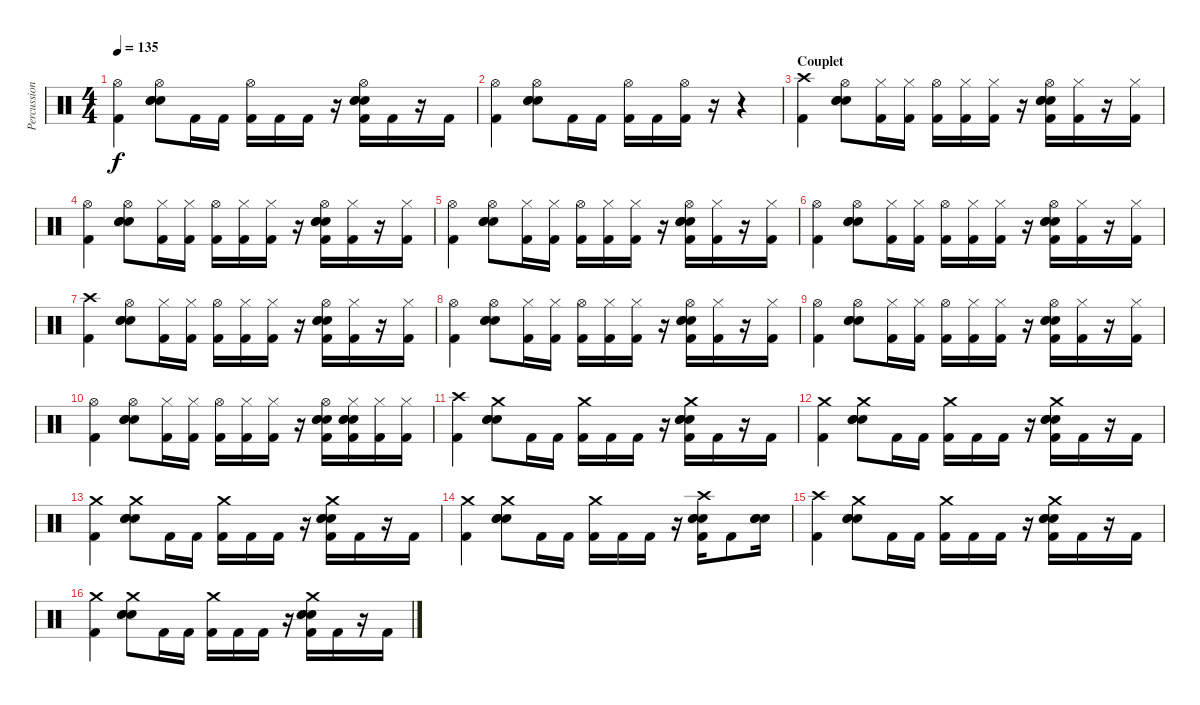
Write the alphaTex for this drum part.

\track ("Percussions" "Percussion") {instrument percussion}
\staff {score}
\articulation defaults
\ts (4 4)
\tempo 135
\clef neutral
\ks c
("Hi-Hat (open)" "Kick (hit) 2").4{dy f} ("Hi-Hat (open)" "Snare (hit) 2" "Electric Snare (hit)" "Electric Snare (hit)").8 "Kick (hit) 2".16 "Kick (hit) 2".16 ("Hi-Hat (open)" "Kick (hit) 2").16 "Kick (hit) 2".16 "Kick (hit) 2".16 r.16 ("Hi-Hat (open)" "Kick (hit) 2" "Snare (hit) 2" "Electric Snare (hit)" "Electric Snare (hit)").16 "Kick (hit) 2".16 r.16 "Kick (hit) 2".16 |
("Hi-Hat (open)" "Kick (hit) 2").4 ("Hi-Hat (open)" "Snare (hit) 2" "Electric Snare (hit)" "Electric Snare (hit)").8 "Kick (hit) 2".16 "Kick (hit) 2".16 ("Hi-Hat (open)" "Kick (hit) 2").16 "Kick (hit) 2".16 ("Hi-Hat (open)" "Kick (hit) 2").16 r.16 r.4 |
\section ("" "Couplet")
("Crash high (hit)" "Kick (hit) 2").4 ("Hi-Hat (open)" "Snare (hit) 2" "Electric Snare (hit)" "Electric Snare (hit)").8 ("Hi-Hat (closed)" "Kick (hit) 2").16 ("Hi-Hat (closed)" "Kick (hit) 2").16 ("Hi-Hat (open)" "Kick (hit) 2").16 ("Hi-Hat (closed)" "Kick (hit) 2").16 ("Hi-Hat (closed)" "Kick (hit) 2").16 r.16 ("Hi-Hat (open)" "Kick (hit) 2" "Snare (hit) 2" "Electric Snare (hit)" "Electric Snare (hit)").16 ("Hi-Hat (closed)" "Kick (hit) 2").16 r.16 ("Hi-Hat (closed)" "Kick (hit) 2").16 |
("Hi-Hat (open)" "Kick (hit) 2").4 ("Hi-Hat (open)" "Snare (hit) 2" "Electric Snare (hit)" "Electric Snare (hit)").8 ("Hi-Hat (closed)" "Kick (hit) 2").16 ("Hi-Hat (closed)" "Kick (hit) 2").16 ("Hi-Hat (open)" "Kick (hit) 2").16 ("Hi-Hat (closed)" "Kick (hit) 2").16 ("Hi-Hat (closed)" "Kick (hit) 2").16 r.16 ("Hi-Hat (open)" "Kick (hit) 2" "Snare (hit) 2" "Electric Snare (hit)" "Electric Snare (hit)").16 ("Hi-Hat (closed)" "Kick (hit) 2").16 r.16 ("Hi-Hat (closed)" "Kick (hit) 2").16 |
("Hi-Hat (open)" "Kick (hit) 2").4 ("Hi-Hat (open)" "Snare (hit) 2" "Electric Snare (hit)" "Electric Snare (hit)").8 ("Hi-Hat (closed)" "Kick (hit) 2").16 ("Hi-Hat (closed)" "Kick (hit) 2").16 ("Hi-Hat (open)" "Kick (hit) 2").16 ("Hi-Hat (closed)" "Kick (hit) 2").16 ("Hi-Hat (closed)" "Kick (hit) 2").16 r.16 ("Hi-Hat (open)" "Kick (hit) 2" "Snare (hit) 2" "Electric Snare (hit)" "Electric Snare (hit)").16 ("Hi-Hat (closed)" "Kick (hit) 2").16 r.16 ("Hi-Hat (closed)" "Kick (hit) 2").16 |
("Hi-Hat (open)" "Kick (hit) 2").4 ("Hi-Hat (open)" "Snare (hit) 2" "Electric Snare (hit)" "Electric Snare (hit)").8 ("Hi-Hat (closed)" "Kick (hit) 2").16 ("Hi-Hat (closed)" "Kick (hit) 2").16 ("Hi-Hat (open)" "Kick (hit) 2").16 ("Hi-Hat (closed)" "Kick (hit) 2").16 ("Hi-Hat (closed)" "Kick (hit) 2").16 r.16 ("Hi-Hat (open)" "Kick (hit) 2" "Snare (hit) 2" "Electric Snare (hit)" "Electric Snare (hit)").16 ("Hi-Hat (closed)" "Kick (hit) 2").16 r.16 ("Hi-Hat (closed)" "Kick (hit) 2").16 |
("Crash high (hit)" "Kick (hit) 2").4 ("Hi-Hat (open)" "Snare (hit) 2" "Electric Snare (hit)" "Electric Snare (hit)").8 ("Hi-Hat (closed)" "Kick (hit) 2").16 ("Hi-Hat (closed)" "Kick (hit) 2").16 ("Hi-Hat (open)" "Kick (hit) 2").16 ("Hi-Hat (closed)" "Kick (hit) 2").16 ("Hi-Hat (closed)" "Kick (hit) 2").16 r.16 ("Hi-Hat (open)" "Kick (hit) 2" "Snare (hit) 2" "Electric Snare (hit)" "Electric Snare (hit)").16 ("Hi-Hat (closed)" "Kick (hit) 2").16 r.16 ("Hi-Hat (closed)" "Kick (hit) 2").16 |
("Hi-Hat (open)" "Kick (hit) 2").4 ("Hi-Hat (open)" "Snare (hit) 2" "Electric Snare (hit)" "Electric Snare (hit)").8 ("Hi-Hat (closed)" "Kick (hit) 2").16 ("Hi-Hat (closed)" "Kick (hit) 2").16 ("Hi-Hat (open)" "Kick (hit) 2").16 ("Hi-Hat (closed)" "Kick (hit) 2").16 ("Hi-Hat (closed)" "Kick (hit) 2").16 r.16 ("Hi-Hat (open)" "Kick (hit) 2" "Snare (hit) 2" "Electric Snare (hit)" "Electric Snare (hit)").16 ("Hi-Hat (closed)" "Kick (hit) 2").16 r.16 ("Hi-Hat (closed)" "Kick (hit) 2").16 |
("Hi-Hat (open)" "Kick (hit) 2").4 ("Hi-Hat (open)" "Snare (hit) 2" "Electric Snare (hit)" "Electric Snare (hit)").8 ("Hi-Hat (closed)" "Kick (hit) 2").16 ("Hi-Hat (closed)" "Kick (hit) 2").16 ("Hi-Hat (open)" "Kick (hit) 2").16 ("Hi-Hat (closed)" "Kick (hit) 2").16 ("Hi-Hat (closed)" "Kick (hit) 2").16 r.16 ("Hi-Hat (open)" "Kick (hit) 2" "Snare (hit) 2" "Electric Snare (hit)" "Electric Snare (hit)").16 ("Hi-Hat (closed)" "Kick (hit) 2").16 r.16 ("Hi-Hat (closed)" "Kick (hit) 2").16 |
("Hi-Hat (open)" "Kick (hit) 2").4 ("Hi-Hat (open)" "Snare (hit) 2" "Electric Snare (hit)" "Electric Snare (hit)").8 ("Hi-Hat (closed)" "Kick (hit) 2").16 ("Hi-Hat (closed)" "Kick (hit) 2").16 ("Hi-Hat (open)" "Kick (hit) 2").16 ("Hi-Hat (closed)" "Kick (hit) 2").16 ("Hi-Hat (closed)" "Kick (hit) 2").16 r.16 ("Hi-Hat (open)" "Kick (hit) 2" "Snare (hit) 2" "Electric Snare (hit)" "Electric Snare (hit)").16 ("Hi-Hat (closed)" "Kick (hit) 2" "Snare (hit) 2" "Electric Snare (hit)" "Electric Snare (hit)").16 ("Hi-Hat (closed)" "Kick (hit) 2").16 ("Hi-Hat (closed)" "Kick (hit) 2").16 |
("Crash high (hit)" "Kick (hit) 2").4 ("Crash medium (hit)" "Snare (hit) 2" "Electric Snare (hit)" "Electric Snare (hit)").8 "Kick (hit) 2".16 "Kick (hit) 2".16 ("Crash medium (hit)" "Kick (hit) 2").16 "Kick (hit) 2".16 "Kick (hit) 2".16 r.16 ("Crash medium (hit)" "Kick (hit) 2" "Snare (hit) 2" "Electric Snare (hit)" "Electric Snare (hit)").16 "Kick (hit) 2".16 r.16 "Kick (hit) 2".16 |
("Crash medium (hit)" "Kick (hit) 2").4 ("Crash medium (hit)" "Snare (hit) 2" "Electric Snare (hit)" "Electric Snare (hit)").8 "Kick (hit) 2".16 "Kick (hit) 2".16 ("Crash medium (hit)" "Kick (hit) 2").16 "Kick (hit) 2".16 "Kick (hit) 2".16 r.16 ("Crash medium (hit)" "Kick (hit) 2" "Snare (hit) 2" "Electric Snare (hit)" "Electric Snare (hit)").16 "Kick (hit) 2".16 r.16 "Kick (hit) 2".16 |
("Crash medium (hit)" "Kick (hit) 2").4 ("Crash medium (hit)" "Snare (hit) 2" "Electric Snare (hit)" "Electric Snare (hit)").8 "Kick (hit) 2".16 "Kick (hit) 2".16 ("Crash medium (hit)" "Kick (hit) 2").16 "Kick (hit) 2".16 "Kick (hit) 2".16 r.16 ("Crash medium (hit)" "Kick (hit) 2" "Snare (hit) 2" "Electric Snare (hit)" "Electric Snare (hit)").16 "Kick (hit) 2".16 r.16 "Kick (hit) 2".16 |
("Crash medium (hit)" "Kick (hit) 2").4 ("Crash medium (hit)" "Snare (hit) 2" "Electric Snare (hit)" "Electric Snare (hit)").8 "Kick (hit) 2".16 "Kick (hit) 2".16 ("Crash medium (hit)" "Kick (hit) 2").16 "Kick (hit) 2".16 "Kick (hit) 2".16 r.16 ("Crash high (hit)" "Kick (hit) 2" "Snare (hit) 2" "Electric Snare (hit)" "Electric Snare (hit)").16 "Kick (hit) 2".8 ("Snare (hit) 2" "Electric Snare (hit)" "Electric Snare (hit)").16 |
("Crash high (hit)" "Kick (hit) 2").4 ("Crash medium (hit)" "Snare (hit) 2" "Electric Snare (hit)" "Electric Snare (hit)").8 "Kick (hit) 2".16 "Kick (hit) 2".16 ("Crash medium (hit)" "Kick (hit) 2").16 "Kick (hit) 2".16 "Kick (hit) 2".16 r.16 ("Crash medium (hit)" "Kick (hit) 2" "Snare (hit) 2" "Electric Snare (hit)" "Electric Snare (hit)").16 "Kick (hit) 2".16 r.16 "Kick (hit) 2".16 |
("Crash medium (hit)" "Kick (hit) 2").4 ("Crash medium (hit)" "Snare (hit) 2" "Electric Snare (hit)" "Electric Snare (hit)").8 "Kick (hit) 2".16 "Kick (hit) 2".16 ("Crash medium (hit)" "Kick (hit) 2").16 "Kick (hit) 2".16 "Kick (hit) 2".16 r.16 ("Crash medium (hit)" "Kick (hit) 2" "Snare (hit) 2" "Electric Snare (hit)" "Electric Snare (hit)").16 "Kick (hit) 2".16 r.16 "Kick (hit) 2".16
